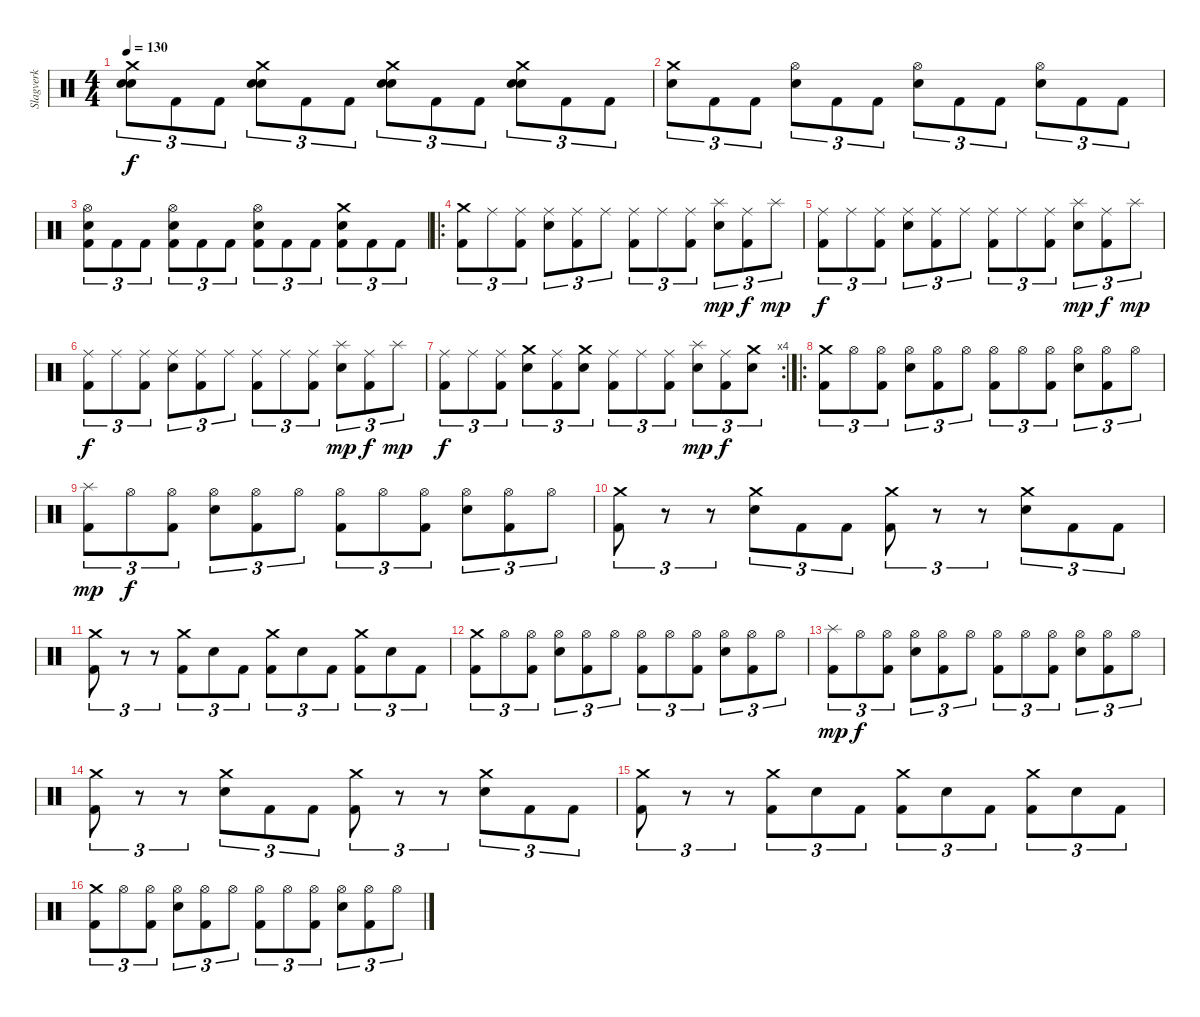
\track ("Slagverk" "Slagverk") {instrument percussion}
\staff {score}
\articulation defaults
\ts (4 4)
\tempo 130
\clef neutral
\ks c
("Crash medium (hit)" "Electric Snare (hit)" "Electric Snare (hit)").8{tu (3 2) dy f} "Kick (hit) 2".8{tu (3 2)} "Kick (hit) 2".8{tu (3 2)} ("Crash medium (hit)" "Electric Snare (hit)" "Electric Snare (hit)").8{tu (3 2)} "Kick (hit) 2".8{tu (3 2)} "Kick (hit) 2".8{tu (3 2)} ("Crash medium (hit)" "Electric Snare (hit)" "Electric Snare (hit)").8{tu (3 2)} "Kick (hit) 2".8{tu (3 2)} "Kick (hit) 2".8{tu (3 2)} ("Crash medium (hit)" "Electric Snare (hit)" "Electric Snare (hit)").8{tu (3 2)} "Kick (hit) 2".8{tu (3 2)} "Kick (hit) 2".8{tu (3 2)} |
("Crash medium (hit)" "Electric Snare (hit)").8{tu (3 2)} "Kick (hit) 2".8{tu (3 2)} "Kick (hit) 2".8{tu (3 2)} ("Hi-Hat (open)" "Electric Snare (hit)").8{tu (3 2)} "Kick (hit) 2".8{tu (3 2)} "Kick (hit) 2".8{tu (3 2)} ("Hi-Hat (open)" "Electric Snare (hit)").8{tu (3 2)} "Kick (hit) 2".8{tu (3 2)} "Kick (hit) 2".8{tu (3 2)} ("Hi-Hat (open)" "Electric Snare (hit)").8{tu (3 2)} "Kick (hit) 2".8{tu (3 2)} "Kick (hit) 2".8{tu (3 2)} |
("Hi-Hat (open)" "Electric Snare (hit)" "Kick (hit) 2").8{tu (3 2)} "Kick (hit) 2".8{tu (3 2)} "Kick (hit) 2".8{tu (3 2)} ("Hi-Hat (open)" "Electric Snare (hit)" "Kick (hit) 2").8{tu (3 2)} "Kick (hit) 2".8{tu (3 2)} "Kick (hit) 2".8{tu (3 2)} ("Hi-Hat (open)" "Electric Snare (hit)" "Kick (hit) 2").8{tu (3 2)} "Kick (hit) 2".8{tu (3 2)} "Kick (hit) 2".8{tu (3 2)} ("Crash medium (hit)" "Electric Snare (hit)" "Kick (hit) 2").8{tu (3 2)} "Kick (hit) 2".8{tu (3 2)} "Kick (hit) 2".8{tu (3 2)} |
\ro
("Crash medium (hit)" "Kick (hit) 2").8{tu (3 2)} "Ride (middle)".8{tu (3 2)} ("Ride (middle)" "Kick (hit) 2").8{tu (3 2)} ("Ride (middle)" "Electric Snare (hit)").8{tu (3 2)} ("Ride (middle)" "Kick (hit) 2").8{tu (3 2)} "Ride (middle)".8{tu (3 2)} ("Ride (middle)" "Kick (hit) 2").8{tu (3 2)} "Ride (middle)".8{tu (3 2)} ("Ride (middle)" "Kick (hit) 2").8{tu (3 2)} ("Splash (hit)" "Electric Snare (hit)").8{tu (3 2) dy mp} ("Ride (middle)" "Kick (hit) 2").8{tu (3 2) dy f} "Splash (hit)".8{tu (3 2) dy mp} |
("Ride (middle)" "Kick (hit) 2").8{tu (3 2) dy f} "Ride (middle)".8{tu (3 2)} ("Ride (middle)" "Kick (hit) 2").8{tu (3 2)} ("Ride (middle)" "Electric Snare (hit)").8{tu (3 2)} ("Ride (middle)" "Kick (hit) 2").8{tu (3 2)} "Ride (middle)".8{tu (3 2)} ("Ride (middle)" "Kick (hit) 2").8{tu (3 2)} "Ride (middle)".8{tu (3 2)} ("Ride (middle)" "Kick (hit) 2").8{tu (3 2)} ("Splash (hit)" "Electric Snare (hit)").8{tu (3 2) dy mp} ("Ride (middle)" "Kick (hit) 2").8{tu (3 2) dy f} "Splash (hit)".8{tu (3 2) dy mp} |
("Ride (middle)" "Kick (hit) 2").8{tu (3 2) dy f} "Ride (middle)".8{tu (3 2)} ("Ride (middle)" "Kick (hit) 2").8{tu (3 2)} ("Ride (middle)" "Electric Snare (hit)").8{tu (3 2)} ("Ride (middle)" "Kick (hit) 2").8{tu (3 2)} "Ride (middle)".8{tu (3 2)} ("Ride (middle)" "Kick (hit) 2").8{tu (3 2)} "Ride (middle)".8{tu (3 2)} ("Ride (middle)" "Kick (hit) 2").8{tu (3 2)} ("Splash (hit)" "Electric Snare (hit)").8{tu (3 2) dy mp} ("Ride (middle)" "Kick (hit) 2").8{tu (3 2) dy f} "Splash (hit)".8{tu (3 2) dy mp} |
\rc 4
("Ride (middle)" "Kick (hit) 2").8{tu (3 2) dy f} "Ride (middle)".8{tu (3 2)} ("Ride (middle)" "Kick (hit) 2").8{tu (3 2)} ("Crash medium (hit)" "Electric Snare (hit)").8{tu (3 2)} ("Ride (middle)" "Kick (hit) 2").8{tu (3 2)} ("Crash medium (hit)" "Electric Snare (hit)").8{tu (3 2)} ("Ride (middle)" "Kick (hit) 2").8{tu (3 2)} "Ride (middle)".8{tu (3 2)} ("Ride (middle)" "Kick (hit) 2").8{tu (3 2)} ("Splash (hit)" "Electric Snare (hit)").8{tu (3 2) dy mp} ("Ride (middle)" "Kick (hit) 2").8{tu (3 2) dy f} ("Crash medium (hit)" "Electric Snare (hit)").8{tu (3 2)} |
\ro
("Kick (hit) 2" "Crash medium (hit)").8{tu (3 2)} "Hi-Hat (open)".8{tu (3 2)} ("Kick (hit) 2" "Hi-Hat (open)").8{tu (3 2)} ("Electric Snare (hit)" "Hi-Hat (open)").8{tu (3 2)} ("Kick (hit) 2" "Hi-Hat (open)").8{tu (3 2)} "Hi-Hat (open)".8{tu (3 2)} ("Kick (hit) 2" "Hi-Hat (open)").8{tu (3 2)} "Hi-Hat (open)".8{tu (3 2)} ("Kick (hit) 2" "Hi-Hat (open)").8{tu (3 2)} ("Electric Snare (hit)" "Hi-Hat (open)").8{tu (3 2)} ("Kick (hit) 2" "Hi-Hat (open)").8{tu (3 2)} "Hi-Hat (open)".8{tu (3 2)} |
("Kick (hit) 2" "Splash (hit)").8{tu (3 2) dy mp} "Hi-Hat (open)".8{tu (3 2) dy f} ("Kick (hit) 2" "Hi-Hat (open)").8{tu (3 2)} ("Electric Snare (hit)" "Hi-Hat (open)").8{tu (3 2)} ("Kick (hit) 2" "Hi-Hat (open)").8{tu (3 2)} "Hi-Hat (open)".8{tu (3 2)} ("Kick (hit) 2" "Hi-Hat (open)").8{tu (3 2)} "Hi-Hat (open)".8{tu (3 2)} ("Kick (hit) 2" "Hi-Hat (open)").8{tu (3 2)} ("Electric Snare (hit)" "Hi-Hat (open)").8{tu (3 2)} ("Kick (hit) 2" "Hi-Hat (open)").8{tu (3 2)} "Hi-Hat (open)".8{tu (3 2)} |
("Kick (hit) 2" "Crash medium (hit)").8{tu (3 2)} r.8{tu (3 2)} r.8{tu (3 2)} ("Electric Snare (hit)" "Crash medium (hit)").8{tu (3 2)} "Kick (hit) 2".8{tu (3 2)} "Kick (hit) 2".8{tu (3 2)} ("Kick (hit) 2" "Crash medium (hit)").8{tu (3 2)} r.8{tu (3 2)} r.8{tu (3 2)} ("Electric Snare (hit)" "Crash medium (hit)").8{tu (3 2)} "Kick (hit) 2".8{tu (3 2)} "Kick (hit) 2".8{tu (3 2)} |
("Kick (hit) 2" "Crash medium (hit)").8{tu (3 2)} r.8{tu (3 2)} r.8{tu (3 2)} ("Kick (hit) 2" "Crash medium (hit)").8{tu (3 2)} "Electric Snare (hit)".8{tu (3 2)} "Kick (hit) 2".8{tu (3 2)} ("Kick (hit) 2" "Crash medium (hit)").8{tu (3 2)} "Electric Snare (hit)".8{tu (3 2)} "Kick (hit) 2".8{tu (3 2)} ("Kick (hit) 2" "Crash medium (hit)").8{tu (3 2)} "Electric Snare (hit)".8{tu (3 2)} "Kick (hit) 2".8{tu (3 2)} |
("Kick (hit) 2" "Crash medium (hit)").8{tu (3 2)} "Hi-Hat (open)".8{tu (3 2)} ("Kick (hit) 2" "Hi-Hat (open)").8{tu (3 2)} ("Electric Snare (hit)" "Hi-Hat (open)").8{tu (3 2)} ("Kick (hit) 2" "Hi-Hat (open)").8{tu (3 2)} "Hi-Hat (open)".8{tu (3 2)} ("Kick (hit) 2" "Hi-Hat (open)").8{tu (3 2)} "Hi-Hat (open)".8{tu (3 2)} ("Kick (hit) 2" "Hi-Hat (open)").8{tu (3 2)} ("Electric Snare (hit)" "Hi-Hat (open)").8{tu (3 2)} ("Kick (hit) 2" "Hi-Hat (open)").8{tu (3 2)} "Hi-Hat (open)".8{tu (3 2)} |
("Kick (hit) 2" "Splash (hit)").8{tu (3 2) dy mp} "Hi-Hat (open)".8{tu (3 2) dy f} ("Kick (hit) 2" "Hi-Hat (open)").8{tu (3 2)} ("Electric Snare (hit)" "Hi-Hat (open)").8{tu (3 2)} ("Kick (hit) 2" "Hi-Hat (open)").8{tu (3 2)} "Hi-Hat (open)".8{tu (3 2)} ("Kick (hit) 2" "Hi-Hat (open)").8{tu (3 2)} "Hi-Hat (open)".8{tu (3 2)} ("Kick (hit) 2" "Hi-Hat (open)").8{tu (3 2)} ("Electric Snare (hit)" "Hi-Hat (open)").8{tu (3 2)} ("Kick (hit) 2" "Hi-Hat (open)").8{tu (3 2)} "Hi-Hat (open)".8{tu (3 2)} |
("Kick (hit) 2" "Crash medium (hit)").8{tu (3 2)} r.8{tu (3 2)} r.8{tu (3 2)} ("Electric Snare (hit)" "Crash medium (hit)").8{tu (3 2)} "Kick (hit) 2".8{tu (3 2)} "Kick (hit) 2".8{tu (3 2)} ("Kick (hit) 2" "Crash medium (hit)").8{tu (3 2)} r.8{tu (3 2)} r.8{tu (3 2)} ("Electric Snare (hit)" "Crash medium (hit)").8{tu (3 2)} "Kick (hit) 2".8{tu (3 2)} "Kick (hit) 2".8{tu (3 2)} |
("Kick (hit) 2" "Crash medium (hit)").8{tu (3 2)} r.8{tu (3 2)} r.8{tu (3 2)} ("Kick (hit) 2" "Crash medium (hit)").8{tu (3 2)} "Electric Snare (hit)".8{tu (3 2)} "Kick (hit) 2".8{tu (3 2)} ("Kick (hit) 2" "Crash medium (hit)").8{tu (3 2)} "Electric Snare (hit)".8{tu (3 2)} "Kick (hit) 2".8{tu (3 2)} ("Kick (hit) 2" "Crash medium (hit)").8{tu (3 2)} "Electric Snare (hit)".8{tu (3 2)} "Kick (hit) 2".8{tu (3 2)} |
("Kick (hit) 2" "Crash medium (hit)").8{tu (3 2)} "Hi-Hat (open)".8{tu (3 2)} ("Kick (hit) 2" "Hi-Hat (open)").8{tu (3 2)} ("Electric Snare (hit)" "Hi-Hat (open)").8{tu (3 2)} ("Kick (hit) 2" "Hi-Hat (open)").8{tu (3 2)} "Hi-Hat (open)".8{tu (3 2)} ("Kick (hit) 2" "Hi-Hat (open)").8{tu (3 2)} "Hi-Hat (open)".8{tu (3 2)} ("Kick (hit) 2" "Hi-Hat (open)").8{tu (3 2)} ("Electric Snare (hit)" "Hi-Hat (open)").8{tu (3 2)} ("Kick (hit) 2" "Hi-Hat (open)").8{tu (3 2)} "Hi-Hat (open)".8{tu (3 2)}
